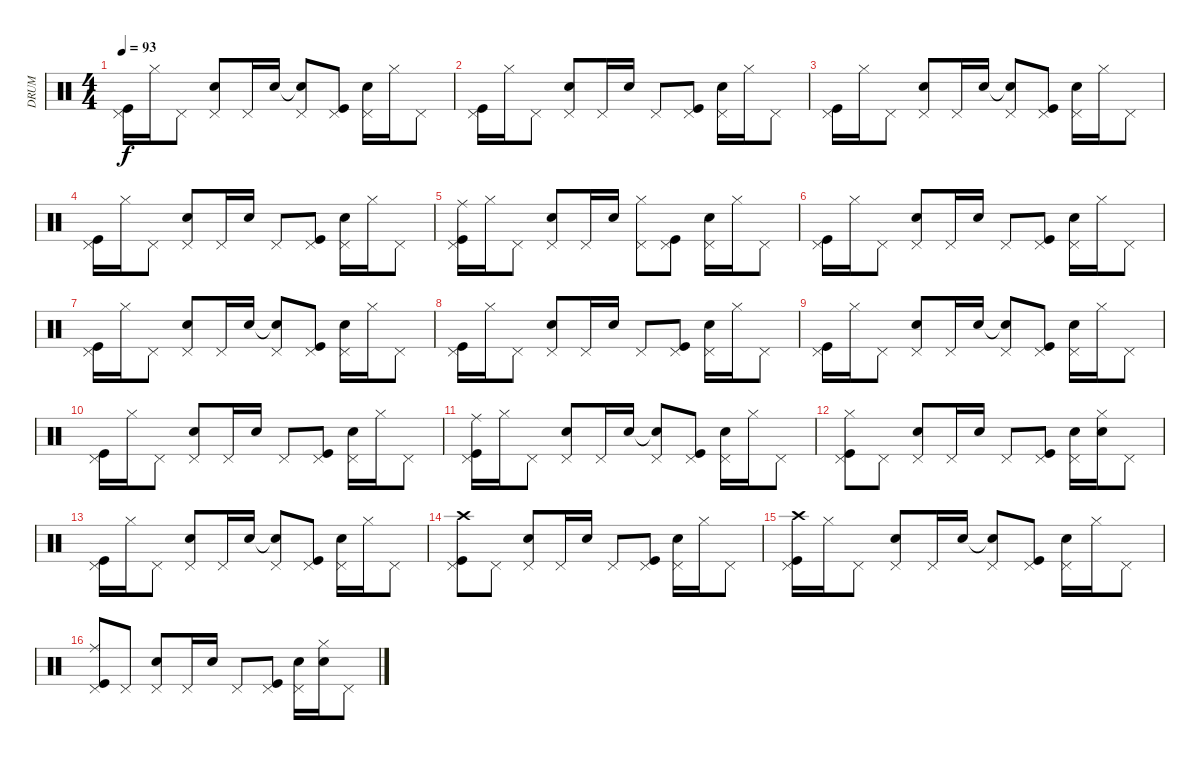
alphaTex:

\track ("DRUM" "DRUM") {instrument percussion}
\staff {score}
\articulation defaults
\ts (4 4)
\tempo 93
\clef neutral
\ks c
("Kick (hit)" "Pedal Hi-Hat (hit)").16{dy f} "Hi-Hat (closed)".16 "Pedal Hi-Hat (hit)".8 ("Snare (hit) 2" "Pedal Hi-Hat (hit)").8 "Pedal Hi-Hat (hit)".16 "Snare (hit) 2".16 ("Snare (hit) 2"{t} "Pedal Hi-Hat (hit)").8 ("Kick (hit)" "Pedal Hi-Hat (hit)").8 ("Snare (hit) 2" "Pedal Hi-Hat (hit)").16 "Hi-Hat (closed)".16 "Pedal Hi-Hat (hit)".8 |
("Kick (hit)" "Pedal Hi-Hat (hit)").16 "Hi-Hat (closed)".16 "Pedal Hi-Hat (hit)".8 ("Snare (hit) 2" "Pedal Hi-Hat (hit)").8 "Pedal Hi-Hat (hit)".16 "Snare (hit) 2".16 "Pedal Hi-Hat (hit)".8 ("Kick (hit)" "Pedal Hi-Hat (hit)").8 ("Snare (hit) 2" "Pedal Hi-Hat (hit)").16 "Hi-Hat (closed)".16 "Pedal Hi-Hat (hit)".8 |
("Kick (hit)" "Pedal Hi-Hat (hit)").16 "Hi-Hat (closed)".16 "Pedal Hi-Hat (hit)".8 ("Snare (hit) 2" "Pedal Hi-Hat (hit)").8 "Pedal Hi-Hat (hit)".16 "Snare (hit) 2".16 ("Snare (hit) 2"{t} "Pedal Hi-Hat (hit)").8 ("Kick (hit)" "Pedal Hi-Hat (hit)").8 ("Snare (hit) 2" "Pedal Hi-Hat (hit)").16 "Hi-Hat (closed)".16 "Pedal Hi-Hat (hit)".8 |
("Kick (hit)" "Pedal Hi-Hat (hit)").16 "Hi-Hat (closed)".16 "Pedal Hi-Hat (hit)".8 ("Snare (hit) 2" "Pedal Hi-Hat (hit)").8 "Pedal Hi-Hat (hit)".16 "Snare (hit) 2".16 "Pedal Hi-Hat (hit)".8 ("Kick (hit)" "Pedal Hi-Hat (hit)").8 ("Snare (hit) 2" "Pedal Hi-Hat (hit)").16 "Hi-Hat (closed)".16 "Pedal Hi-Hat (hit)".8 |
("Ride (middle)" "Kick (hit)" "Pedal Hi-Hat (hit)").16 "Hi-Hat (closed)".16 "Pedal Hi-Hat (hit)".8 ("Snare (hit) 2" "Pedal Hi-Hat (hit)").8 "Pedal Hi-Hat (hit)".16 "Snare (hit) 2".16 ("Hi-Hat (closed)" "Pedal Hi-Hat (hit)").8 ("Kick (hit)" "Pedal Hi-Hat (hit)").8 ("Snare (hit) 2" "Pedal Hi-Hat (hit)").16 "Hi-Hat (closed)".16 "Pedal Hi-Hat (hit)".8 |
("Kick (hit)" "Pedal Hi-Hat (hit)").16 "Hi-Hat (closed)".16 "Pedal Hi-Hat (hit)".8 ("Snare (hit) 2" "Pedal Hi-Hat (hit)").8 "Pedal Hi-Hat (hit)".16 "Snare (hit) 2".16 "Pedal Hi-Hat (hit)".8 ("Kick (hit)" "Pedal Hi-Hat (hit)").8 ("Snare (hit) 2" "Pedal Hi-Hat (hit)").16 "Hi-Hat (closed)".16 "Pedal Hi-Hat (hit)".8 |
("Kick (hit)" "Pedal Hi-Hat (hit)").16 "Hi-Hat (closed)".16 "Pedal Hi-Hat (hit)".8 ("Snare (hit) 2" "Pedal Hi-Hat (hit)").8 "Pedal Hi-Hat (hit)".16 "Snare (hit) 2".16 ("Snare (hit) 2"{t} "Pedal Hi-Hat (hit)").8 ("Kick (hit)" "Pedal Hi-Hat (hit)").8 ("Snare (hit) 2" "Pedal Hi-Hat (hit)").16 "Hi-Hat (closed)".16 "Pedal Hi-Hat (hit)".8 |
("Kick (hit)" "Pedal Hi-Hat (hit)").16 "Hi-Hat (closed)".16 "Pedal Hi-Hat (hit)".8 ("Snare (hit) 2" "Pedal Hi-Hat (hit)").8 "Pedal Hi-Hat (hit)".16 "Snare (hit) 2".16 "Pedal Hi-Hat (hit)".8 ("Kick (hit)" "Pedal Hi-Hat (hit)").8 ("Snare (hit) 2" "Pedal Hi-Hat (hit)").16 "Hi-Hat (closed)".16 "Pedal Hi-Hat (hit)".8 |
("Kick (hit)" "Pedal Hi-Hat (hit)").16 "Hi-Hat (closed)".16 "Pedal Hi-Hat (hit)".8 ("Snare (hit) 2" "Pedal Hi-Hat (hit)").8 "Pedal Hi-Hat (hit)".16 "Snare (hit) 2".16 ("Snare (hit) 2"{t} "Pedal Hi-Hat (hit)").8 ("Kick (hit)" "Pedal Hi-Hat (hit)").8 ("Snare (hit) 2" "Pedal Hi-Hat (hit)").16 "Hi-Hat (closed)".16 "Pedal Hi-Hat (hit)".8 |
("Kick (hit)" "Pedal Hi-Hat (hit)").16 "Hi-Hat (closed)".16 "Pedal Hi-Hat (hit)".8 ("Snare (hit) 2" "Pedal Hi-Hat (hit)").8 "Pedal Hi-Hat (hit)".16 "Snare (hit) 2".16 "Pedal Hi-Hat (hit)".8 ("Kick (hit)" "Pedal Hi-Hat (hit)").8 ("Snare (hit) 2" "Pedal Hi-Hat (hit)").16 "Hi-Hat (closed)".16 "Pedal Hi-Hat (hit)".8 |
("Ride (middle)" "Kick (hit)" "Pedal Hi-Hat (hit)").16 "Hi-Hat (closed)".16 "Pedal Hi-Hat (hit)".8 ("Snare (hit) 2" "Pedal Hi-Hat (hit)").8 "Pedal Hi-Hat (hit)".16 "Snare (hit) 2".16 ("Snare (hit) 2"{t} "Pedal Hi-Hat (hit)").8 ("Kick (hit)" "Pedal Hi-Hat (hit)").8 ("Snare (hit) 2" "Pedal Hi-Hat (hit)").16 "Hi-Hat (closed)".16 "Pedal Hi-Hat (hit)".8 |
("Hi-Hat (closed)" "Kick (hit)" "Pedal Hi-Hat (hit)").8 "Pedal Hi-Hat (hit)".8 ("Snare (hit) 2" "Pedal Hi-Hat (hit)").8 "Pedal Hi-Hat (hit)".16 "Snare (hit) 2".16 "Pedal Hi-Hat (hit)".8 ("Kick (hit)" "Pedal Hi-Hat (hit)").8 ("Snare (hit) 2" "Pedal Hi-Hat (hit)").16 ("Hi-Hat (closed)" "Snare (hit) 2").16 "Pedal Hi-Hat (hit)".8 |
("Kick (hit)" "Pedal Hi-Hat (hit)").16 "Hi-Hat (closed)".16 "Pedal Hi-Hat (hit)".8 ("Snare (hit) 2" "Pedal Hi-Hat (hit)").8 "Pedal Hi-Hat (hit)".16 "Snare (hit) 2".16 ("Snare (hit) 2"{t} "Pedal Hi-Hat (hit)").8 ("Kick (hit)" "Pedal Hi-Hat (hit)").8 ("Snare (hit) 2" "Pedal Hi-Hat (hit)").16 "Hi-Hat (closed)".16 "Pedal Hi-Hat (hit)".8 |
("Crash high (hit)" "Kick (hit)" "Pedal Hi-Hat (hit)").8 "Pedal Hi-Hat (hit)".8 ("Snare (hit) 2" "Pedal Hi-Hat (hit)").8 "Pedal Hi-Hat (hit)".16 "Snare (hit) 2".16 "Pedal Hi-Hat (hit)".8 ("Kick (hit)" "Pedal Hi-Hat (hit)").8 ("Snare (hit) 2" "Pedal Hi-Hat (hit)").16 "Hi-Hat (closed)".16 "Pedal Hi-Hat (hit)".8 |
("Crash high (hit)" "Kick (hit)" "Pedal Hi-Hat (hit)").16 "Hi-Hat (closed)".16 "Pedal Hi-Hat (hit)".8 ("Snare (hit) 2" "Pedal Hi-Hat (hit)").8 "Pedal Hi-Hat (hit)".16 "Snare (hit) 2".16 ("Snare (hit) 2"{t} "Pedal Hi-Hat (hit)").8 ("Kick (hit)" "Pedal Hi-Hat (hit)").8 ("Snare (hit) 2" "Pedal Hi-Hat (hit)").16 "Hi-Hat (closed)".16 "Pedal Hi-Hat (hit)".8 |
("Ride (middle)" "Kick (hit)" "Pedal Hi-Hat (hit)").8 "Pedal Hi-Hat (hit)".8 ("Snare (hit) 2" "Pedal Hi-Hat (hit)").8 "Pedal Hi-Hat (hit)".16 "Snare (hit) 2".16 "Pedal Hi-Hat (hit)".8 ("Kick (hit)" "Pedal Hi-Hat (hit)").8 ("Snare (hit) 2" "Pedal Hi-Hat (hit)").16 ("Hi-Hat (closed)" "Snare (hit) 2").16 "Pedal Hi-Hat (hit)".8
